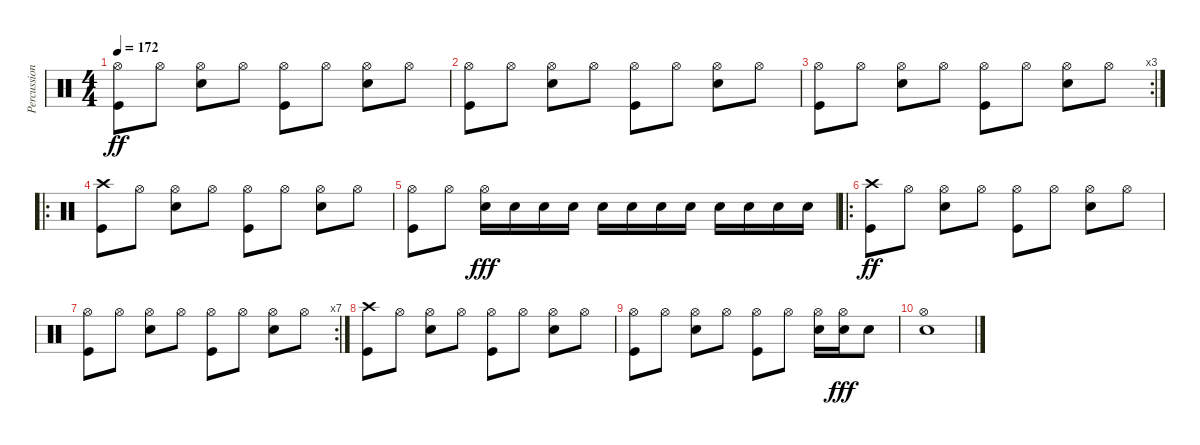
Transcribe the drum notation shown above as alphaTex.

\track ("Percussioni" "Percussion") {instrument percussion}
\staff {score}
\articulation defaults
\ts (4 4)
\tempo 172
\clef neutral
\ks c
("Hi-Hat (open)" "Kick (hit)").8{dy ff} "Hi-Hat (open)".8 ("Hi-Hat (open)" "Electric Snare (hit)").8 "Hi-Hat (open)".8 ("Hi-Hat (open)" "Kick (hit)").8 "Hi-Hat (open)".8 ("Hi-Hat (open)" "Electric Snare (hit)").8 "Hi-Hat (open)".8 |
("Hi-Hat (open)" "Kick (hit)").8 "Hi-Hat (open)".8 ("Hi-Hat (open)" "Electric Snare (hit)").8 "Hi-Hat (open)".8 ("Hi-Hat (open)" "Kick (hit)").8 "Hi-Hat (open)".8 ("Hi-Hat (open)" "Electric Snare (hit)").8 "Hi-Hat (open)".8 |
\rc 3
("Hi-Hat (open)" "Kick (hit)").8 "Hi-Hat (open)".8 ("Hi-Hat (open)" "Electric Snare (hit)").8 "Hi-Hat (open)".8 ("Hi-Hat (open)" "Kick (hit)").8 "Hi-Hat (open)".8 ("Hi-Hat (open)" "Electric Snare (hit)").8 "Hi-Hat (open)".8 |
\ro
("Crash high (hit)" "Kick (hit)").8 "Hi-Hat (open)".8 ("Hi-Hat (open)" "Electric Snare (hit)").8 "Hi-Hat (open)".8 ("Hi-Hat (open)" "Kick (hit)").8 "Hi-Hat (open)".8 ("Hi-Hat (open)" "Electric Snare (hit)").8 "Hi-Hat (open)".8 |
("Hi-Hat (open)" "Kick (hit)").8 "Hi-Hat (open)".8 ("Hi-Hat (open)" "Electric Snare (hit)").16{dy fff} "Snare (hit)".16 "Electric Snare (hit)".16 "Electric Snare (hit)".16 "Electric Snare (hit)".16 "Electric Snare (hit)".16 "Electric Snare (hit)".16 "Electric Snare (hit)".16 "Electric Snare (hit)".16 "Electric Snare (hit)".16 "Electric Snare (hit)".16 "Electric Snare (hit)".16 |
\ro
("Crash high (hit)" "Kick (hit)").8{dy ff} "Hi-Hat (open)".8 ("Hi-Hat (open)" "Electric Snare (hit)").8 "Hi-Hat (open)".8 ("Hi-Hat (open)" "Kick (hit)").8 "Hi-Hat (open)".8 ("Hi-Hat (open)" "Electric Snare (hit)").8 "Hi-Hat (open)".8 |
\rc 7
("Hi-Hat (open)" "Kick (hit)").8 "Hi-Hat (open)".8 ("Hi-Hat (open)" "Electric Snare (hit)").8 "Hi-Hat (open)".8 ("Hi-Hat (open)" "Kick (hit)").8 "Hi-Hat (open)".8 ("Hi-Hat (open)" "Electric Snare (hit)").8 "Hi-Hat (open)".8 |
("Crash high (hit)" "Kick (hit)").8 "Hi-Hat (open)".8 ("Hi-Hat (open)" "Electric Snare (hit)").8 "Hi-Hat (open)".8 ("Hi-Hat (open)" "Kick (hit)").8 "Hi-Hat (open)".8 ("Hi-Hat (open)" "Electric Snare (hit)").8 "Hi-Hat (open)".8 |
("Hi-Hat (open)" "Kick (hit)").8 "Hi-Hat (open)".8 ("Hi-Hat (open)" "Electric Snare (hit)").8 "Hi-Hat (open)".8 ("Hi-Hat (open)" "Kick (hit)").8 "Hi-Hat (open)".8 ("Hi-Hat (open)" "Electric Snare (hit)").16 ("Hi-Hat (open)" "Electric Snare (hit)").16{dy fff} "Electric Snare (hit)".8 |
("Hi-Hat (open)" "Electric Snare (hit)").1
